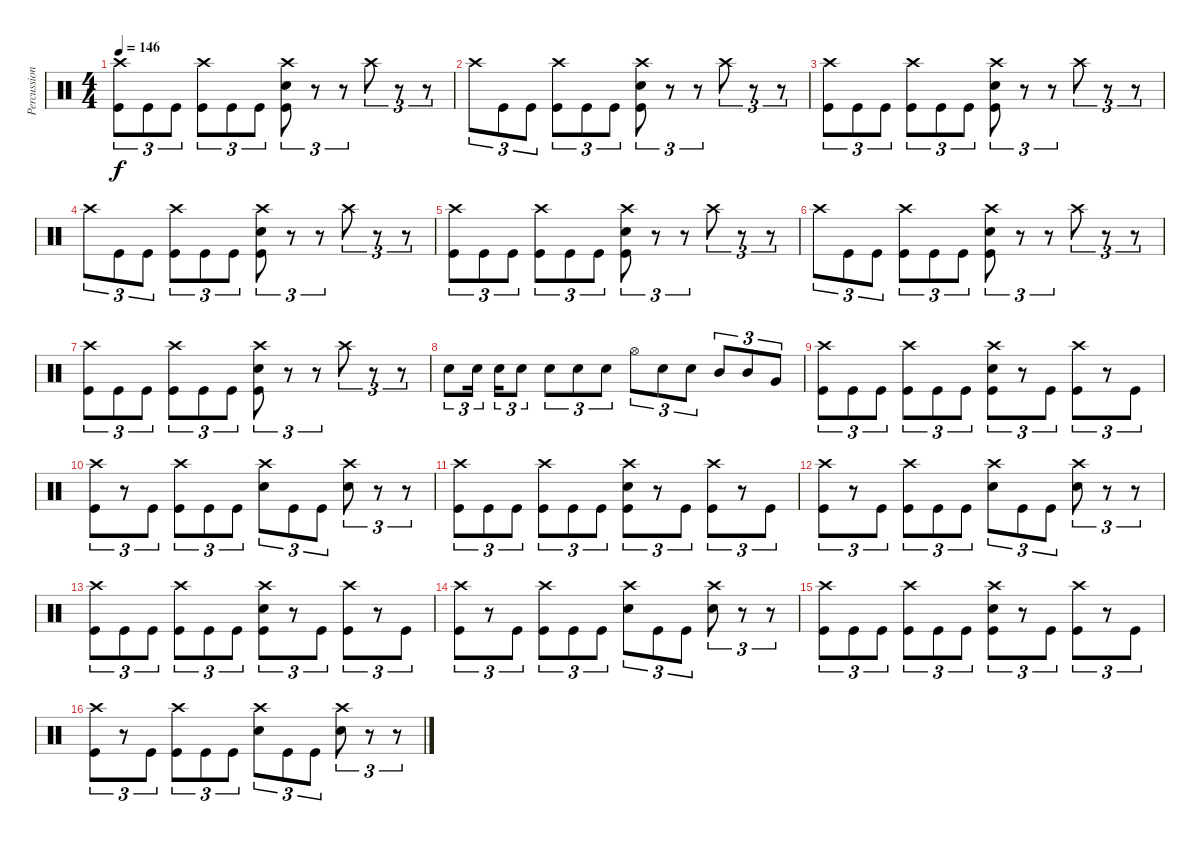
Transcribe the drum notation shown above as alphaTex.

\track ("Percussion" "Percussion") {instrument percussion}
\staff {score}
\articulation defaults
\ts (4 4)
\tempo 146
\clef neutral
\ks c
("Crash high (hit)" "Kick (hit)").8{tu (3 2) dy f} "Kick (hit)".8{tu (3 2)} "Kick (hit)".8{tu (3 2)} ("Crash high (hit)" "Kick (hit)").8{tu (3 2)} "Kick (hit)".8{tu (3 2)} "Kick (hit)".8{tu (3 2)} ("Crash high (hit)" "Snare (hit) 2" "Kick (hit)").8{tu (3 2)} r.8{tu (3 2)} r.8{tu (3 2)} "Crash high (hit)".8{tu (3 2)} r.8{tu (3 2)} r.8{tu (3 2)} |
"Crash high (hit)".8{tu (3 2)} "Kick (hit)".8{tu (3 2)} "Kick (hit)".8{tu (3 2)} ("Crash high (hit)" "Kick (hit)").8{tu (3 2)} "Kick (hit)".8{tu (3 2)} "Kick (hit)".8{tu (3 2)} ("Crash high (hit)" "Snare (hit) 2" "Kick (hit)").8{tu (3 2)} r.8{tu (3 2)} r.8{tu (3 2)} "Crash high (hit)".8{tu (3 2)} r.8{tu (3 2)} r.8{tu (3 2)} |
("Crash high (hit)" "Kick (hit)").8{tu (3 2)} "Kick (hit)".8{tu (3 2)} "Kick (hit)".8{tu (3 2)} ("Crash high (hit)" "Kick (hit)").8{tu (3 2)} "Kick (hit)".8{tu (3 2)} "Kick (hit)".8{tu (3 2)} ("Crash high (hit)" "Snare (hit) 2" "Kick (hit)").8{tu (3 2)} r.8{tu (3 2)} r.8{tu (3 2)} "Crash high (hit)".8{tu (3 2)} r.8{tu (3 2)} r.8{tu (3 2)} |
"Crash high (hit)".8{tu (3 2)} "Kick (hit)".8{tu (3 2)} "Kick (hit)".8{tu (3 2)} ("Crash high (hit)" "Kick (hit)").8{tu (3 2)} "Kick (hit)".8{tu (3 2)} "Kick (hit)".8{tu (3 2)} ("Crash high (hit)" "Snare (hit) 2" "Kick (hit)").8{tu (3 2)} r.8{tu (3 2)} r.8{tu (3 2)} "Crash high (hit)".8{tu (3 2)} r.8{tu (3 2)} r.8{tu (3 2)} |
("Crash high (hit)" "Kick (hit)").8{tu (3 2)} "Kick (hit)".8{tu (3 2)} "Kick (hit)".8{tu (3 2)} ("Crash high (hit)" "Kick (hit)").8{tu (3 2)} "Kick (hit)".8{tu (3 2)} "Kick (hit)".8{tu (3 2)} ("Crash high (hit)" "Snare (hit) 2" "Kick (hit)").8{tu (3 2)} r.8{tu (3 2)} r.8{tu (3 2)} "Crash high (hit)".8{tu (3 2)} r.8{tu (3 2)} r.8{tu (3 2)} |
"Crash high (hit)".8{tu (3 2)} "Kick (hit)".8{tu (3 2)} "Kick (hit)".8{tu (3 2)} ("Crash high (hit)" "Kick (hit)").8{tu (3 2)} "Kick (hit)".8{tu (3 2)} "Kick (hit)".8{tu (3 2)} ("Crash high (hit)" "Snare (hit) 2" "Kick (hit)").8{tu (3 2)} r.8{tu (3 2)} r.8{tu (3 2)} "Crash high (hit)".8{tu (3 2)} r.8{tu (3 2)} r.8{tu (3 2)} |
("Crash high (hit)" "Kick (hit)").8{tu (3 2)} "Kick (hit)".8{tu (3 2)} "Kick (hit)".8{tu (3 2)} ("Crash high (hit)" "Kick (hit)").8{tu (3 2)} "Kick (hit)".8{tu (3 2)} "Kick (hit)".8{tu (3 2)} ("Crash high (hit)" "Snare (hit) 2" "Kick (hit)").8{tu (3 2)} r.8{tu (3 2)} r.8{tu (3 2)} "Crash high (hit)".8{tu (3 2)} r.8{tu (3 2)} r.8{tu (3 2)} |
"Snare (hit) 2".8{tu (3 2)} "Snare (hit) 2".16{tu (3 2) beam splitsecondary} "Snare (hit) 2".16{tu (3 2)} "Snare (hit) 2".8{tu (3 2)} "Snare (hit) 2".8{tu (3 2)} "Snare (hit) 2".8{tu (3 2)} "Snare (hit) 2".8{tu (3 2)} "Hi-Hat (open)".8{tu (3 2)} "Snare (hit) 2".8{tu (3 2)} "Snare (hit) 2".8{tu (3 2)} "Mid Tom (hit)".8{tu (3 2)} "Mid Tom (hit)".8{tu (3 2)} "Very Low Tom (hit)".8{tu (3 2)} |
("Crash high (hit)" "Kick (hit)").8{tu (3 2)} "Kick (hit)".8{tu (3 2)} "Kick (hit)".8{tu (3 2)} ("Crash high (hit)" "Kick (hit)").8{tu (3 2)} "Kick (hit)".8{tu (3 2)} "Kick (hit)".8{tu (3 2)} ("Crash high (hit)" "Snare (hit) 2" "Kick (hit)").8{tu (3 2)} r.8{tu (3 2)} "Kick (hit)".8{tu (3 2)} ("Crash high (hit)" "Kick (hit)").8{tu (3 2)} r.8{tu (3 2)} "Kick (hit)".8{tu (3 2)} |
("Crash high (hit)" "Kick (hit)").8{tu (3 2)} r.8{tu (3 2)} "Kick (hit)".8{tu (3 2)} ("Crash high (hit)" "Kick (hit)").8{tu (3 2)} "Kick (hit)".8{tu (3 2)} "Kick (hit)".8{tu (3 2)} ("Crash high (hit)" "Snare (hit) 2").8{tu (3 2)} "Kick (hit)".8{tu (3 2)} "Kick (hit)".8{tu (3 2)} ("Crash high (hit)" "Snare (hit) 2").8{tu (3 2)} r.8{tu (3 2)} r.8{tu (3 2)} |
("Crash high (hit)" "Kick (hit)").8{tu (3 2)} "Kick (hit)".8{tu (3 2)} "Kick (hit)".8{tu (3 2)} ("Crash high (hit)" "Kick (hit)").8{tu (3 2)} "Kick (hit)".8{tu (3 2)} "Kick (hit)".8{tu (3 2)} ("Crash high (hit)" "Snare (hit) 2" "Kick (hit)").8{tu (3 2)} r.8{tu (3 2)} "Kick (hit)".8{tu (3 2)} ("Crash high (hit)" "Kick (hit)").8{tu (3 2)} r.8{tu (3 2)} "Kick (hit)".8{tu (3 2)} |
("Crash high (hit)" "Kick (hit)").8{tu (3 2)} r.8{tu (3 2)} "Kick (hit)".8{tu (3 2)} ("Crash high (hit)" "Kick (hit)").8{tu (3 2)} "Kick (hit)".8{tu (3 2)} "Kick (hit)".8{tu (3 2)} ("Crash high (hit)" "Snare (hit) 2").8{tu (3 2)} "Kick (hit)".8{tu (3 2)} "Kick (hit)".8{tu (3 2)} ("Crash high (hit)" "Snare (hit) 2").8{tu (3 2)} r.8{tu (3 2)} r.8{tu (3 2)} |
("Crash high (hit)" "Kick (hit)").8{tu (3 2)} "Kick (hit)".8{tu (3 2)} "Kick (hit)".8{tu (3 2)} ("Crash high (hit)" "Kick (hit)").8{tu (3 2)} "Kick (hit)".8{tu (3 2)} "Kick (hit)".8{tu (3 2)} ("Crash high (hit)" "Snare (hit) 2" "Kick (hit)").8{tu (3 2)} r.8{tu (3 2)} "Kick (hit)".8{tu (3 2)} ("Crash high (hit)" "Kick (hit)").8{tu (3 2)} r.8{tu (3 2)} "Kick (hit)".8{tu (3 2)} |
("Crash high (hit)" "Kick (hit)").8{tu (3 2)} r.8{tu (3 2)} "Kick (hit)".8{tu (3 2)} ("Crash high (hit)" "Kick (hit)").8{tu (3 2)} "Kick (hit)".8{tu (3 2)} "Kick (hit)".8{tu (3 2)} ("Crash high (hit)" "Snare (hit) 2").8{tu (3 2)} "Kick (hit)".8{tu (3 2)} "Kick (hit)".8{tu (3 2)} ("Crash high (hit)" "Snare (hit) 2").8{tu (3 2)} r.8{tu (3 2)} r.8{tu (3 2)} |
("Crash high (hit)" "Kick (hit)").8{tu (3 2)} "Kick (hit)".8{tu (3 2)} "Kick (hit)".8{tu (3 2)} ("Crash high (hit)" "Kick (hit)").8{tu (3 2)} "Kick (hit)".8{tu (3 2)} "Kick (hit)".8{tu (3 2)} ("Crash high (hit)" "Snare (hit) 2" "Kick (hit)").8{tu (3 2)} r.8{tu (3 2)} "Kick (hit)".8{tu (3 2)} ("Crash high (hit)" "Kick (hit)").8{tu (3 2)} r.8{tu (3 2)} "Kick (hit)".8{tu (3 2)} |
("Crash high (hit)" "Kick (hit)").8{tu (3 2)} r.8{tu (3 2)} "Kick (hit)".8{tu (3 2)} ("Crash high (hit)" "Kick (hit)").8{tu (3 2)} "Kick (hit)".8{tu (3 2)} "Kick (hit)".8{tu (3 2)} ("Crash high (hit)" "Snare (hit) 2").8{tu (3 2)} "Kick (hit)".8{tu (3 2)} "Kick (hit)".8{tu (3 2)} ("Crash high (hit)" "Snare (hit) 2").8{tu (3 2)} r.8{tu (3 2)} r.8{tu (3 2)}
